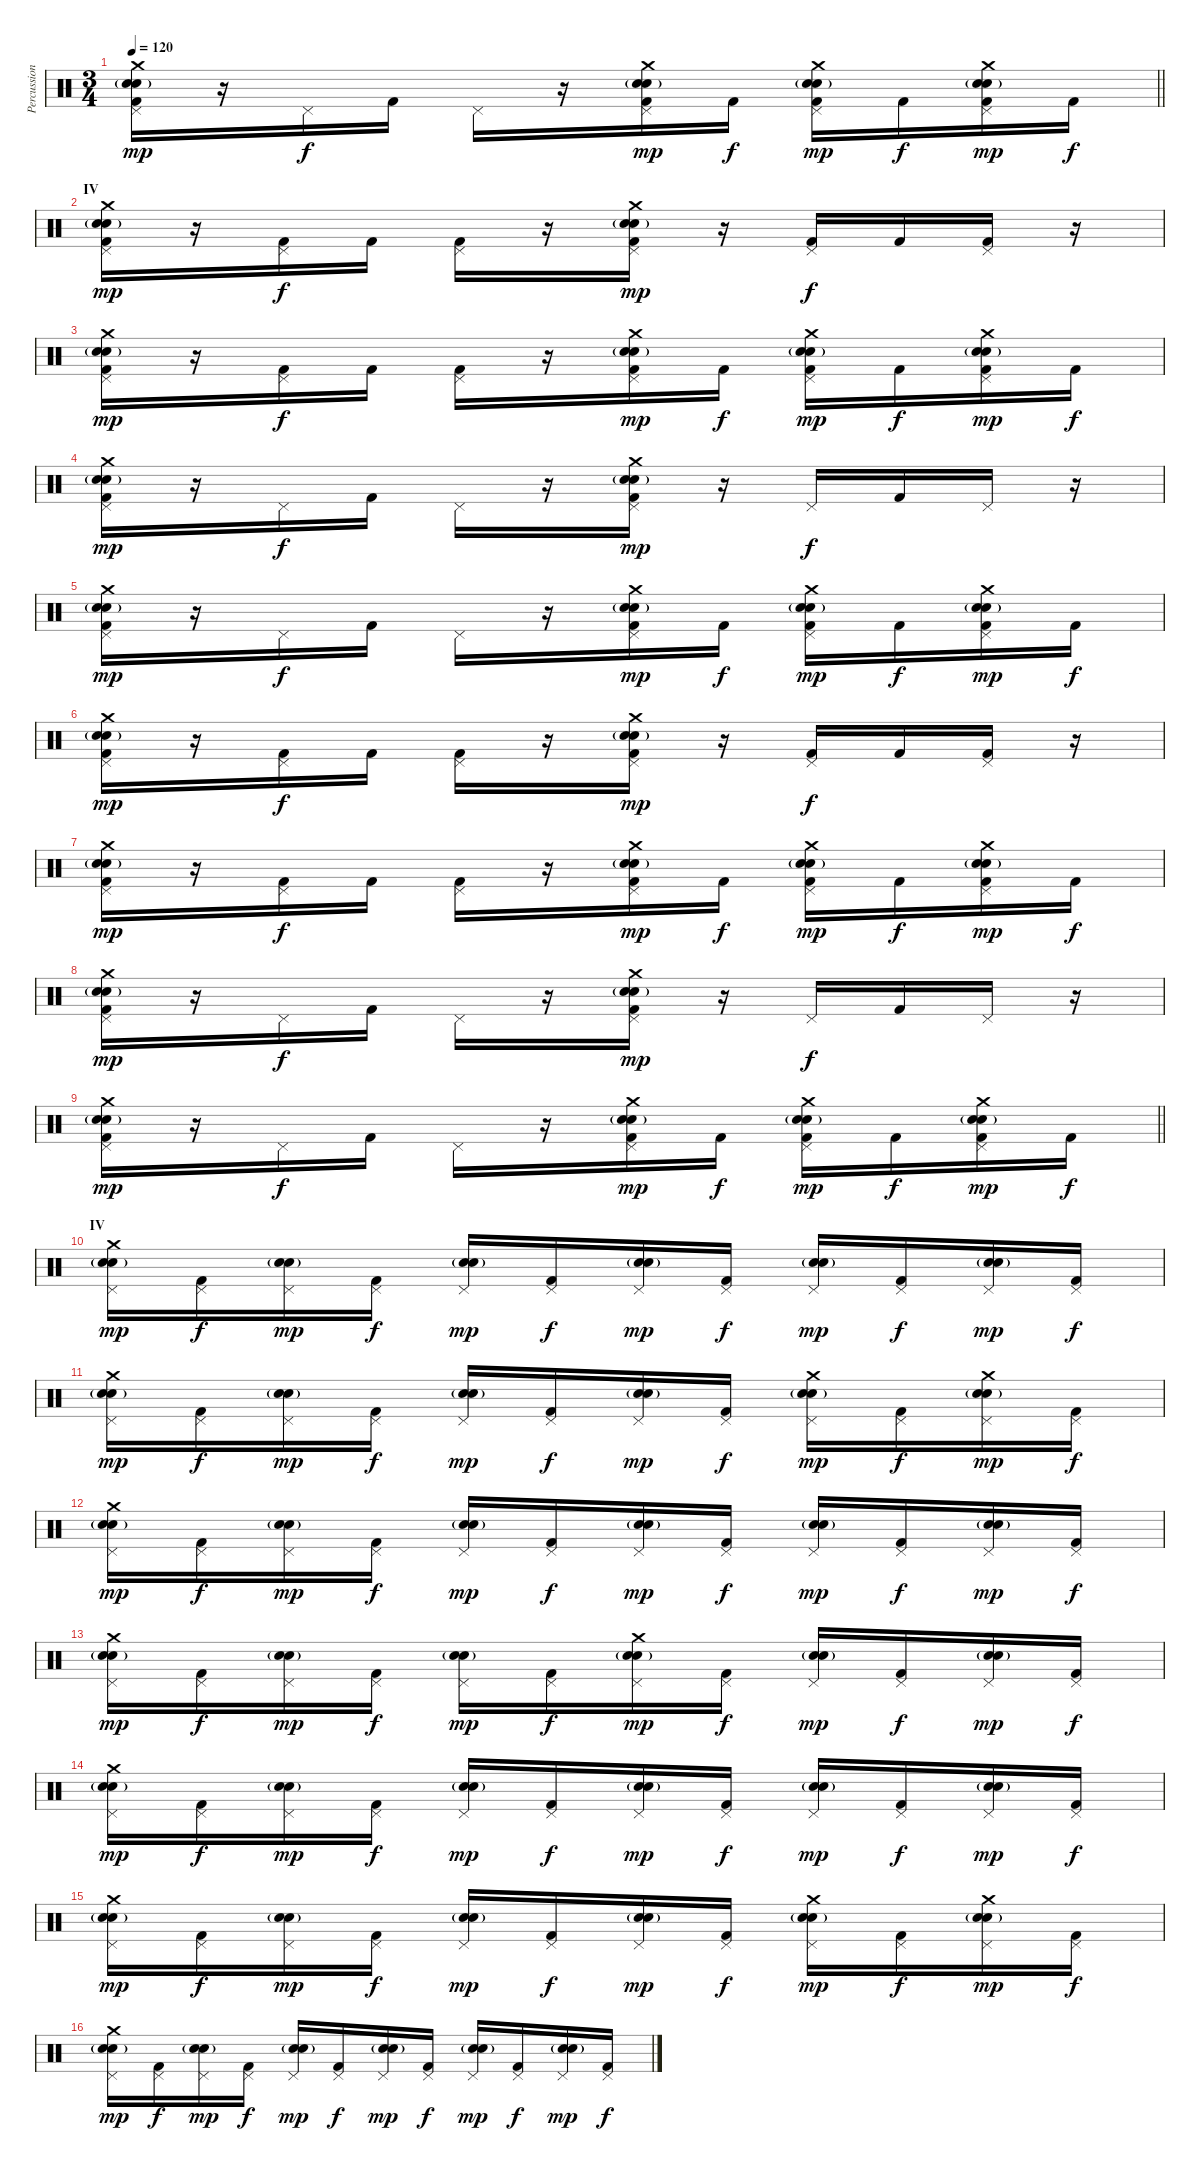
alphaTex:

\track ("Percussion" "Percussion") {instrument percussion}
\staff {score}
\articulation defaults
\ts (3 4)
\tempo 120
\clef neutral
\barLineRight lightlight
\ks c
("Crash medium (hit)" "Electric Snare (hit)" "Snare (hit) 2"{g} "Kick (hit) 2" "Pedal Hi-Hat (hit)").16{dy mp} r.16 "Pedal Hi-Hat (hit)".16{dy f} "Kick (hit) 2".16 "Pedal Hi-Hat (hit)".16 r.16 ("Crash medium (hit)" "Electric Snare (hit)" "Snare (hit) 2"{g} "Kick (hit) 2" "Pedal Hi-Hat (hit)").16{dy mp} "Kick (hit) 2".16{dy f} ("Crash medium (hit)" "Electric Snare (hit)" "Snare (hit) 2"{g} "Kick (hit) 2" "Pedal Hi-Hat (hit)").16{dy mp} "Kick (hit) 2".16{dy f} ("Crash medium (hit)" "Electric Snare (hit)" "Snare (hit) 2"{g} "Kick (hit) 2" "Pedal Hi-Hat (hit)").16{dy mp} "Kick (hit) 2".16{dy f} |
\section ("" "IV")
("Crash medium (hit)" "Electric Snare (hit)" "Snare (hit) 2"{g} "Kick (hit) 2" "Pedal Hi-Hat (hit)").16{dy mp} r.16 ("Kick (hit) 2" "Pedal Hi-Hat (hit)").16{dy f} "Kick (hit) 2".16 ("Kick (hit) 2" "Pedal Hi-Hat (hit)").16 r.16 ("Crash medium (hit)" "Electric Snare (hit)" "Snare (hit) 2"{g} "Kick (hit) 2" "Pedal Hi-Hat (hit)").16{dy mp} r.16 ("Kick (hit) 2" "Pedal Hi-Hat (hit)").16{dy f} "Kick (hit) 2".16 ("Kick (hit) 2" "Pedal Hi-Hat (hit)").16 r.16 |
("Crash medium (hit)" "Electric Snare (hit)" "Snare (hit) 2"{g} "Kick (hit) 2" "Pedal Hi-Hat (hit)").16{dy mp} r.16 ("Kick (hit) 2" "Pedal Hi-Hat (hit)").16{dy f} "Kick (hit) 2".16 ("Kick (hit) 2" "Pedal Hi-Hat (hit)").16 r.16 ("Crash medium (hit)" "Electric Snare (hit)" "Snare (hit) 2"{g} "Kick (hit) 2" "Pedal Hi-Hat (hit)").16{dy mp} "Kick (hit) 2".16{dy f} ("Crash medium (hit)" "Electric Snare (hit)" "Snare (hit) 2"{g} "Kick (hit) 2" "Pedal Hi-Hat (hit)").16{dy mp} "Kick (hit) 2".16{dy f} ("Crash medium (hit)" "Electric Snare (hit)" "Snare (hit) 2"{g} "Kick (hit) 2" "Pedal Hi-Hat (hit)").16{dy mp} "Kick (hit) 2".16{dy f} |
("Crash medium (hit)" "Electric Snare (hit)" "Snare (hit) 2"{g} "Kick (hit) 2" "Pedal Hi-Hat (hit)").16{dy mp} r.16 "Pedal Hi-Hat (hit)".16{dy f} "Kick (hit) 2".16 "Pedal Hi-Hat (hit)".16 r.16 ("Crash medium (hit)" "Electric Snare (hit)" "Snare (hit) 2"{g} "Kick (hit) 2" "Pedal Hi-Hat (hit)").16{dy mp} r.16 "Pedal Hi-Hat (hit)".16{dy f} "Kick (hit) 2".16 "Pedal Hi-Hat (hit)".16 r.16 |
("Crash medium (hit)" "Electric Snare (hit)" "Snare (hit) 2"{g} "Kick (hit) 2" "Pedal Hi-Hat (hit)").16{dy mp} r.16 "Pedal Hi-Hat (hit)".16{dy f} "Kick (hit) 2".16 "Pedal Hi-Hat (hit)".16 r.16 ("Crash medium (hit)" "Electric Snare (hit)" "Snare (hit) 2"{g} "Kick (hit) 2" "Pedal Hi-Hat (hit)").16{dy mp} "Kick (hit) 2".16{dy f} ("Crash medium (hit)" "Electric Snare (hit)" "Snare (hit) 2"{g} "Kick (hit) 2" "Pedal Hi-Hat (hit)").16{dy mp} "Kick (hit) 2".16{dy f} ("Crash medium (hit)" "Electric Snare (hit)" "Snare (hit) 2"{g} "Kick (hit) 2" "Pedal Hi-Hat (hit)").16{dy mp} "Kick (hit) 2".16{dy f} |
("Crash medium (hit)" "Electric Snare (hit)" "Snare (hit) 2"{g} "Kick (hit) 2" "Pedal Hi-Hat (hit)").16{dy mp} r.16 ("Kick (hit) 2" "Pedal Hi-Hat (hit)").16{dy f} "Kick (hit) 2".16 ("Kick (hit) 2" "Pedal Hi-Hat (hit)").16 r.16 ("Crash medium (hit)" "Electric Snare (hit)" "Snare (hit) 2"{g} "Kick (hit) 2" "Pedal Hi-Hat (hit)").16{dy mp} r.16 ("Kick (hit) 2" "Pedal Hi-Hat (hit)").16{dy f} "Kick (hit) 2".16 ("Kick (hit) 2" "Pedal Hi-Hat (hit)").16 r.16 |
("Crash medium (hit)" "Electric Snare (hit)" "Snare (hit) 2"{g} "Kick (hit) 2" "Pedal Hi-Hat (hit)").16{dy mp} r.16 ("Kick (hit) 2" "Pedal Hi-Hat (hit)").16{dy f} "Kick (hit) 2".16 ("Kick (hit) 2" "Pedal Hi-Hat (hit)").16 r.16 ("Crash medium (hit)" "Electric Snare (hit)" "Snare (hit) 2"{g} "Kick (hit) 2" "Pedal Hi-Hat (hit)").16{dy mp} "Kick (hit) 2".16{dy f} ("Crash medium (hit)" "Electric Snare (hit)" "Snare (hit) 2"{g} "Kick (hit) 2" "Pedal Hi-Hat (hit)").16{dy mp} "Kick (hit) 2".16{dy f} ("Crash medium (hit)" "Electric Snare (hit)" "Snare (hit) 2"{g} "Kick (hit) 2" "Pedal Hi-Hat (hit)").16{dy mp} "Kick (hit) 2".16{dy f} |
("Crash medium (hit)" "Electric Snare (hit)" "Snare (hit) 2"{g} "Kick (hit) 2" "Pedal Hi-Hat (hit)").16{dy mp} r.16 "Pedal Hi-Hat (hit)".16{dy f} "Kick (hit) 2".16 "Pedal Hi-Hat (hit)".16 r.16 ("Crash medium (hit)" "Electric Snare (hit)" "Snare (hit) 2"{g} "Kick (hit) 2" "Pedal Hi-Hat (hit)").16{dy mp} r.16 "Pedal Hi-Hat (hit)".16{dy f} "Kick (hit) 2".16 "Pedal Hi-Hat (hit)".16 r.16 |
\barLineRight lightlight
("Crash medium (hit)" "Electric Snare (hit)" "Snare (hit) 2"{g} "Kick (hit) 2" "Pedal Hi-Hat (hit)").16{dy mp} r.16 "Pedal Hi-Hat (hit)".16{dy f} "Kick (hit) 2".16 "Pedal Hi-Hat (hit)".16 r.16 ("Crash medium (hit)" "Electric Snare (hit)" "Snare (hit) 2"{g} "Kick (hit) 2" "Pedal Hi-Hat (hit)").16{dy mp} "Kick (hit) 2".16{dy f} ("Crash medium (hit)" "Electric Snare (hit)" "Snare (hit) 2"{g} "Kick (hit) 2" "Pedal Hi-Hat (hit)").16{dy mp} "Kick (hit) 2".16{dy f} ("Crash medium (hit)" "Electric Snare (hit)" "Snare (hit) 2"{g} "Kick (hit) 2" "Pedal Hi-Hat (hit)").16{dy mp} "Kick (hit) 2".16{dy f} |
\section ("" "IV")
("Crash medium (hit)" "Electric Snare (hit)" "Snare (hit) 2"{g} "Pedal Hi-Hat (hit)").16{dy mp} ("Kick (hit) 2" "Pedal Hi-Hat (hit)").16{dy f} ("Electric Snare (hit)" "Snare (hit) 2"{g} "Pedal Hi-Hat (hit)").16{dy mp} ("Kick (hit) 2" "Pedal Hi-Hat (hit)").16{dy f} ("Electric Snare (hit)" "Snare (hit) 2"{g} "Pedal Hi-Hat (hit)").16{dy mp} ("Kick (hit) 2" "Pedal Hi-Hat (hit)").16{dy f} ("Electric Snare (hit)" "Snare (hit) 2"{g} "Pedal Hi-Hat (hit)").16{dy mp} ("Kick (hit) 2" "Pedal Hi-Hat (hit)").16{dy f} ("Electric Snare (hit)" "Snare (hit) 2"{g} "Pedal Hi-Hat (hit)").16{dy mp} ("Kick (hit) 2" "Pedal Hi-Hat (hit)").16{dy f} ("Electric Snare (hit)" "Snare (hit) 2"{g} "Pedal Hi-Hat (hit)").16{dy mp} ("Kick (hit) 2" "Pedal Hi-Hat (hit)").16{dy f} |
("Crash medium (hit)" "Electric Snare (hit)" "Snare (hit) 2"{g} "Pedal Hi-Hat (hit)").16{dy mp} ("Kick (hit) 2" "Pedal Hi-Hat (hit)").16{dy f} ("Electric Snare (hit)" "Snare (hit) 2"{g} "Pedal Hi-Hat (hit)").16{dy mp} ("Kick (hit) 2" "Pedal Hi-Hat (hit)").16{dy f} ("Electric Snare (hit)" "Snare (hit) 2"{g} "Pedal Hi-Hat (hit)").16{dy mp} ("Kick (hit) 2" "Pedal Hi-Hat (hit)").16{dy f} ("Electric Snare (hit)" "Snare (hit) 2"{g} "Pedal Hi-Hat (hit)").16{dy mp} ("Kick (hit) 2" "Pedal Hi-Hat (hit)").16{dy f} ("Crash medium (hit)" "Electric Snare (hit)" "Snare (hit) 2"{g} "Pedal Hi-Hat (hit)").16{dy mp} ("Kick (hit) 2" "Pedal Hi-Hat (hit)").16{dy f} ("Crash medium (hit)" "Electric Snare (hit)" "Snare (hit) 2"{g} "Pedal Hi-Hat (hit)").16{dy mp} ("Kick (hit) 2" "Pedal Hi-Hat (hit)").16{dy f} |
("Crash medium (hit)" "Electric Snare (hit)" "Snare (hit) 2"{g} "Pedal Hi-Hat (hit)").16{dy mp} ("Kick (hit) 2" "Pedal Hi-Hat (hit)").16{dy f} ("Electric Snare (hit)" "Snare (hit) 2"{g} "Pedal Hi-Hat (hit)").16{dy mp} ("Kick (hit) 2" "Pedal Hi-Hat (hit)").16{dy f} ("Electric Snare (hit)" "Snare (hit) 2"{g} "Pedal Hi-Hat (hit)").16{dy mp} ("Kick (hit) 2" "Pedal Hi-Hat (hit)").16{dy f} ("Electric Snare (hit)" "Snare (hit) 2"{g} "Pedal Hi-Hat (hit)").16{dy mp} ("Kick (hit) 2" "Pedal Hi-Hat (hit)").16{dy f} ("Electric Snare (hit)" "Snare (hit) 2"{g} "Pedal Hi-Hat (hit)").16{dy mp} ("Kick (hit) 2" "Pedal Hi-Hat (hit)").16{dy f} ("Electric Snare (hit)" "Snare (hit) 2"{g} "Pedal Hi-Hat (hit)").16{dy mp} ("Kick (hit) 2" "Pedal Hi-Hat (hit)").16{dy f} |
("Crash medium (hit)" "Electric Snare (hit)" "Snare (hit) 2"{g} "Pedal Hi-Hat (hit)").16{dy mp} ("Kick (hit) 2" "Pedal Hi-Hat (hit)").16{dy f} ("Electric Snare (hit)" "Snare (hit) 2"{g} "Pedal Hi-Hat (hit)").16{dy mp} ("Kick (hit) 2" "Pedal Hi-Hat (hit)").16{dy f} ("Electric Snare (hit)" "Snare (hit) 2"{g} "Pedal Hi-Hat (hit)").16{dy mp} ("Kick (hit) 2" "Pedal Hi-Hat (hit)").16{dy f} ("Crash medium (hit)" "Electric Snare (hit)" "Snare (hit) 2"{g} "Pedal Hi-Hat (hit)").16{dy mp} ("Kick (hit) 2" "Pedal Hi-Hat (hit)").16{dy f} ("Electric Snare (hit)" "Snare (hit) 2"{g} "Pedal Hi-Hat (hit)").16{dy mp} ("Kick (hit) 2" "Pedal Hi-Hat (hit)").16{dy f} ("Electric Snare (hit)" "Snare (hit) 2"{g} "Pedal Hi-Hat (hit)").16{dy mp} ("Kick (hit) 2" "Pedal Hi-Hat (hit)").16{dy f} |
("Crash medium (hit)" "Electric Snare (hit)" "Snare (hit) 2"{g} "Pedal Hi-Hat (hit)").16{dy mp} ("Kick (hit) 2" "Pedal Hi-Hat (hit)").16{dy f} ("Electric Snare (hit)" "Snare (hit) 2"{g} "Pedal Hi-Hat (hit)").16{dy mp} ("Kick (hit) 2" "Pedal Hi-Hat (hit)").16{dy f} ("Electric Snare (hit)" "Snare (hit) 2"{g} "Pedal Hi-Hat (hit)").16{dy mp} ("Kick (hit) 2" "Pedal Hi-Hat (hit)").16{dy f} ("Electric Snare (hit)" "Snare (hit) 2"{g} "Pedal Hi-Hat (hit)").16{dy mp} ("Kick (hit) 2" "Pedal Hi-Hat (hit)").16{dy f} ("Electric Snare (hit)" "Snare (hit) 2"{g} "Pedal Hi-Hat (hit)").16{dy mp} ("Kick (hit) 2" "Pedal Hi-Hat (hit)").16{dy f} ("Electric Snare (hit)" "Snare (hit) 2"{g} "Pedal Hi-Hat (hit)").16{dy mp} ("Kick (hit) 2" "Pedal Hi-Hat (hit)").16{dy f} |
("Crash medium (hit)" "Electric Snare (hit)" "Snare (hit) 2"{g} "Pedal Hi-Hat (hit)").16{dy mp} ("Kick (hit) 2" "Pedal Hi-Hat (hit)").16{dy f} ("Electric Snare (hit)" "Snare (hit) 2"{g} "Pedal Hi-Hat (hit)").16{dy mp} ("Kick (hit) 2" "Pedal Hi-Hat (hit)").16{dy f} ("Electric Snare (hit)" "Snare (hit) 2"{g} "Pedal Hi-Hat (hit)").16{dy mp} ("Kick (hit) 2" "Pedal Hi-Hat (hit)").16{dy f} ("Electric Snare (hit)" "Snare (hit) 2"{g} "Pedal Hi-Hat (hit)").16{dy mp} ("Kick (hit) 2" "Pedal Hi-Hat (hit)").16{dy f} ("Crash medium (hit)" "Electric Snare (hit)" "Snare (hit) 2"{g} "Pedal Hi-Hat (hit)").16{dy mp} ("Kick (hit) 2" "Pedal Hi-Hat (hit)").16{dy f} ("Crash medium (hit)" "Electric Snare (hit)" "Snare (hit) 2"{g} "Pedal Hi-Hat (hit)").16{dy mp} ("Kick (hit) 2" "Pedal Hi-Hat (hit)").16{dy f} |
("Crash medium (hit)" "Electric Snare (hit)" "Snare (hit) 2"{g} "Pedal Hi-Hat (hit)").16{dy mp} ("Kick (hit) 2" "Pedal Hi-Hat (hit)").16{dy f} ("Electric Snare (hit)" "Snare (hit) 2"{g} "Pedal Hi-Hat (hit)").16{dy mp} ("Kick (hit) 2" "Pedal Hi-Hat (hit)").16{dy f} ("Electric Snare (hit)" "Snare (hit) 2"{g} "Pedal Hi-Hat (hit)").16{dy mp} ("Kick (hit) 2" "Pedal Hi-Hat (hit)").16{dy f} ("Electric Snare (hit)" "Snare (hit) 2"{g} "Pedal Hi-Hat (hit)").16{dy mp} ("Kick (hit) 2" "Pedal Hi-Hat (hit)").16{dy f} ("Electric Snare (hit)" "Snare (hit) 2"{g} "Pedal Hi-Hat (hit)").16{dy mp} ("Kick (hit) 2" "Pedal Hi-Hat (hit)").16{dy f} ("Electric Snare (hit)" "Snare (hit) 2"{g} "Pedal Hi-Hat (hit)").16{dy mp} ("Kick (hit) 2" "Pedal Hi-Hat (hit)").16{dy f}
